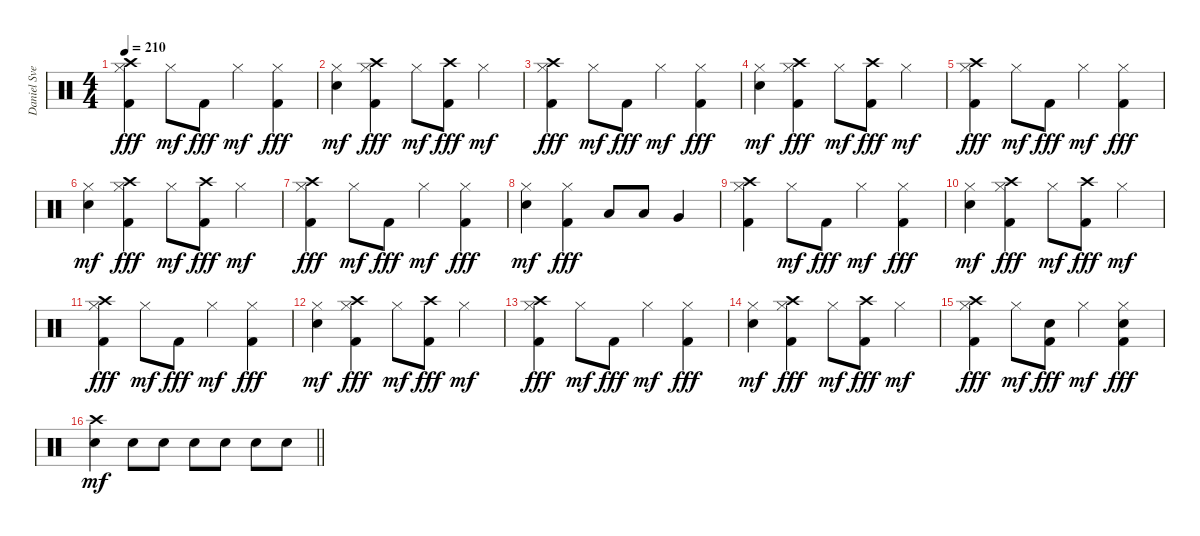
\track ("Daniel Svensson" "Daniel Sve") {instrument percussion}
\staff {score}
\articulation defaults
\ts (4 4)
\tempo 210
\clef neutral
\ks c
("Crash high (hit)" "Hi-Hat (closed)" "Kick (hit) 2").4{dy fff} "Hi-Hat (closed)".8{dy mf} "Kick (hit) 2".8{dy fff} "Hi-Hat (closed)".4{dy mf} ("Hi-Hat (closed)" "Kick (hit) 2").4{dy fff} |
("Hi-Hat (closed)" "Electric Snare (hit)").4{dy mf} ("Crash high (hit)" "Hi-Hat (closed)" "Kick (hit) 2").4{dy fff} "Hi-Hat (closed)".8{dy mf} ("Crash high (hit)" "Kick (hit) 2").8{dy fff} "Hi-Hat (closed)".4{dy mf} |
("Crash high (hit)" "Hi-Hat (closed)" "Kick (hit) 2").4{dy fff} "Hi-Hat (closed)".8{dy mf} "Kick (hit) 2".8{dy fff} "Hi-Hat (closed)".4{dy mf} ("Hi-Hat (closed)" "Kick (hit) 2").4{dy fff} |
("Hi-Hat (closed)" "Electric Snare (hit)").4{dy mf} ("Crash high (hit)" "Hi-Hat (closed)" "Kick (hit) 2").4{dy fff} "Hi-Hat (closed)".8{dy mf} ("Crash high (hit)" "Kick (hit) 2").8{dy fff} "Hi-Hat (closed)".4{dy mf} |
("Crash high (hit)" "Hi-Hat (closed)" "Kick (hit) 2").4{dy fff} "Hi-Hat (closed)".8{dy mf} "Kick (hit) 2".8{dy fff} "Hi-Hat (closed)".4{dy mf} ("Hi-Hat (closed)" "Kick (hit) 2").4{dy fff} |
("Hi-Hat (closed)" "Electric Snare (hit)").4{dy mf} ("Crash high (hit)" "Hi-Hat (closed)" "Kick (hit) 2").4{dy fff} "Hi-Hat (closed)".8{dy mf} ("Crash high (hit)" "Kick (hit) 2").8{dy fff} "Hi-Hat (closed)".4{dy mf} |
("Crash high (hit)" "Hi-Hat (closed)" "Kick (hit) 2").4{dy fff} "Hi-Hat (closed)".8{dy mf} "Kick (hit) 2".8{dy fff} "Hi-Hat (closed)".4{dy mf} ("Hi-Hat (closed)" "Kick (hit) 2").4{dy fff} |
("Hi-Hat (closed)" "Electric Snare (hit)").4{dy mf} ("Hi-Hat (closed)" "Kick (hit) 2").4{dy fff} "Low Tom (hit)".8 "Low Tom (hit)".8 "Very Low Tom (hit)".4 |
("Crash high (hit)" "Hi-Hat (closed)" "Kick (hit) 2").4 "Hi-Hat (closed)".8{dy mf} "Kick (hit) 2".8{dy fff} "Hi-Hat (closed)".4{dy mf} ("Hi-Hat (closed)" "Kick (hit) 2").4{dy fff} |
("Hi-Hat (closed)" "Electric Snare (hit)").4{dy mf} ("Crash high (hit)" "Hi-Hat (closed)" "Kick (hit) 2").4{dy fff} "Hi-Hat (closed)".8{dy mf} ("Crash high (hit)" "Kick (hit) 2").8{dy fff} "Hi-Hat (closed)".4{dy mf} |
("Crash high (hit)" "Hi-Hat (closed)" "Kick (hit) 2").4{dy fff} "Hi-Hat (closed)".8{dy mf} "Kick (hit) 2".8{dy fff} "Hi-Hat (closed)".4{dy mf} ("Hi-Hat (closed)" "Kick (hit) 2").4{dy fff} |
("Hi-Hat (closed)" "Electric Snare (hit)").4{dy mf} ("Crash high (hit)" "Hi-Hat (closed)" "Kick (hit) 2").4{dy fff} "Hi-Hat (closed)".8{dy mf} ("Crash high (hit)" "Kick (hit) 2").8{dy fff} "Hi-Hat (closed)".4{dy mf} |
("Crash high (hit)" "Hi-Hat (closed)" "Kick (hit) 2").4{dy fff} "Hi-Hat (closed)".8{dy mf} "Kick (hit) 2".8{dy fff} "Hi-Hat (closed)".4{dy mf} ("Hi-Hat (closed)" "Kick (hit) 2").4{dy fff} |
("Hi-Hat (closed)" "Electric Snare (hit)").4{dy mf} ("Crash high (hit)" "Hi-Hat (closed)" "Kick (hit) 2").4{dy fff} "Hi-Hat (closed)".8{dy mf} ("Crash high (hit)" "Kick (hit) 2").8{dy fff} "Hi-Hat (closed)".4{dy mf} |
("Crash high (hit)" "Hi-Hat (closed)" "Kick (hit) 2").4{dy fff} "Hi-Hat (closed)".8{dy mf} ("Electric Snare (hit)" "Kick (hit) 2").8{dy fff} "Hi-Hat (closed)".4{dy mf} ("Hi-Hat (closed)" "Electric Snare (hit)" "Kick (hit) 2").4{dy fff} |
\barLineRight lightlight
("Crash high (hit)" "Electric Snare (hit)").4{dy mf} "Electric Snare (hit)".8 "Electric Snare (hit)".8 "Electric Snare (hit)".8 "Electric Snare (hit)".8 "Electric Snare (hit)".8 "Electric Snare (hit)".8
